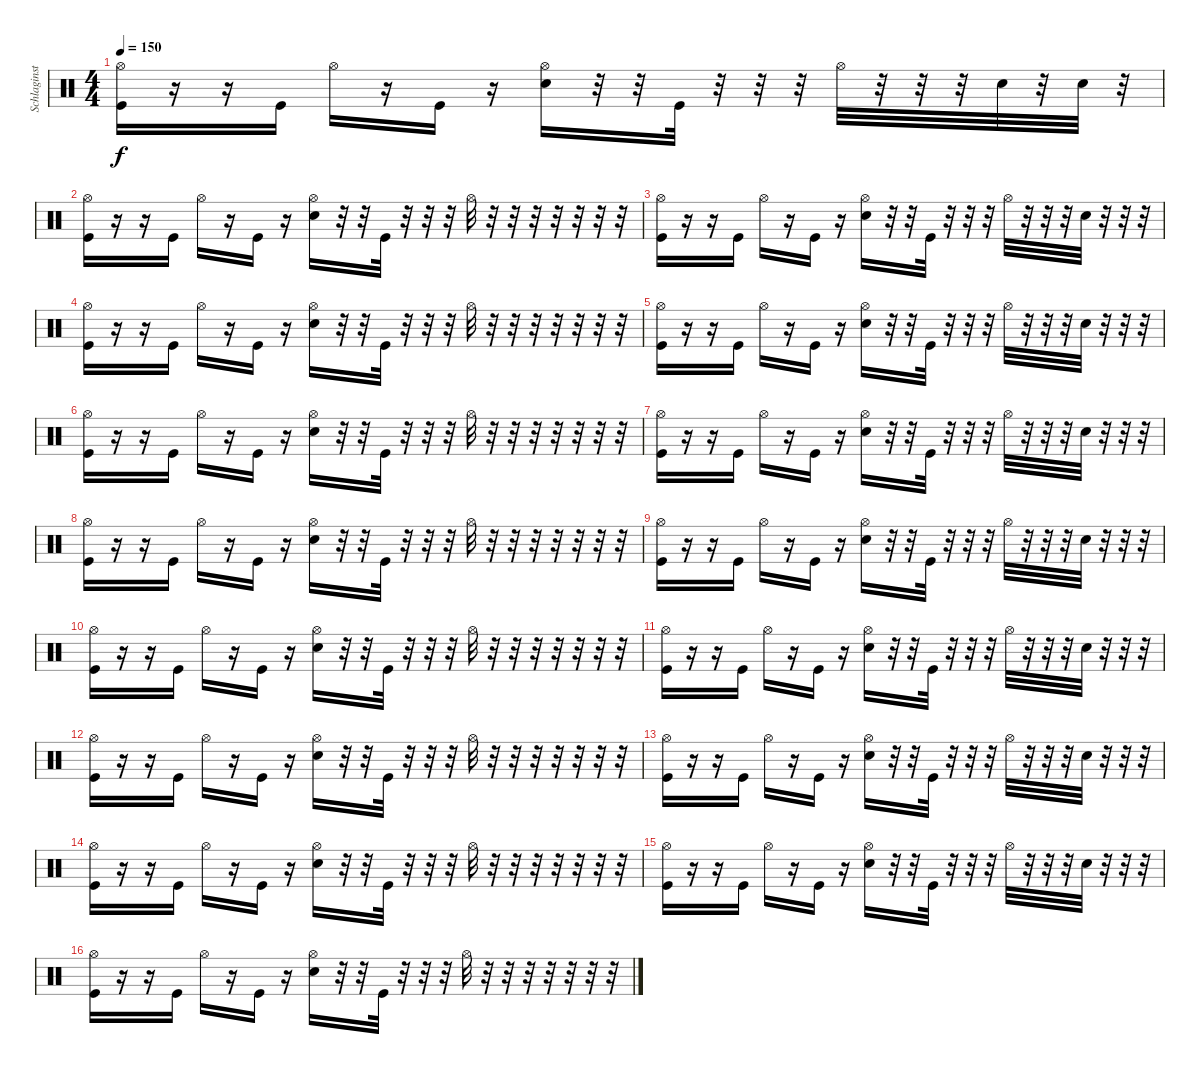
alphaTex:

\track ("Schlaginstrumente - Auswahl" "Schlaginst") {instrument percussion}
\staff {score}
\articulation defaults
\ts (4 4)
\tempo 150
\clef neutral
\ks c
("Kick (hit)" "Hi-Hat (open)").16{dy f} r.16 r.16 "Kick (hit)".16 "Hi-Hat (open)".16 r.16 "Kick (hit)".16 r.16 ("Electric Snare (hit)" "Hi-Hat (open)").16 r.32 r.32 "Kick (hit)".32 r.32 r.32 r.32 "Hi-Hat (open)".32 r.32 r.32 r.32 "Electric Snare (hit)".32 r.32 "Electric Snare (hit)".32 r.32 |
("Kick (hit)" "Hi-Hat (open)").16 r.16 r.16 "Kick (hit)".16 "Hi-Hat (open)".16 r.16 "Kick (hit)".16 r.16 ("Electric Snare (hit)" "Hi-Hat (open)").16 r.32 r.32 "Kick (hit)".32 r.32 r.32 r.32 "Hi-Hat (open)".32 r.32 r.32 r.32 r.32 r.32 r.32 r.32 |
("Kick (hit)" "Hi-Hat (open)").16 r.16 r.16 "Kick (hit)".16 "Hi-Hat (open)".16 r.16 "Kick (hit)".16 r.16 ("Electric Snare (hit)" "Hi-Hat (open)").16 r.32 r.32 "Kick (hit)".32 r.32 r.32 r.32 "Hi-Hat (open)".32 r.32 r.32 r.32 "Electric Snare (hit)".32 r.32 r.32 r.32 |
("Kick (hit)" "Hi-Hat (open)").16 r.16 r.16 "Kick (hit)".16 "Hi-Hat (open)".16 r.16 "Kick (hit)".16 r.16 ("Electric Snare (hit)" "Hi-Hat (open)").16 r.32 r.32 "Kick (hit)".32 r.32 r.32 r.32 "Hi-Hat (open)".32 r.32 r.32 r.32 r.32 r.32 r.32 r.32 |
("Kick (hit)" "Hi-Hat (open)").16 r.16 r.16 "Kick (hit)".16 "Hi-Hat (open)".16 r.16 "Kick (hit)".16 r.16 ("Electric Snare (hit)" "Hi-Hat (open)").16 r.32 r.32 "Kick (hit)".32 r.32 r.32 r.32 "Hi-Hat (open)".32 r.32 r.32 r.32 "Electric Snare (hit)".32 r.32 r.32 r.32 |
("Kick (hit)" "Hi-Hat (open)").16 r.16 r.16 "Kick (hit)".16 "Hi-Hat (open)".16 r.16 "Kick (hit)".16 r.16 ("Electric Snare (hit)" "Hi-Hat (open)").16 r.32 r.32 "Kick (hit)".32 r.32 r.32 r.32 "Hi-Hat (open)".32 r.32 r.32 r.32 r.32 r.32 r.32 r.32 |
("Kick (hit)" "Hi-Hat (open)").16 r.16 r.16 "Kick (hit)".16 "Hi-Hat (open)".16 r.16 "Kick (hit)".16 r.16 ("Electric Snare (hit)" "Hi-Hat (open)").16 r.32 r.32 "Kick (hit)".32 r.32 r.32 r.32 "Hi-Hat (open)".32 r.32 r.32 r.32 "Electric Snare (hit)".32 r.32 r.32 r.32 |
("Kick (hit)" "Hi-Hat (open)").16 r.16 r.16 "Kick (hit)".16 "Hi-Hat (open)".16 r.16 "Kick (hit)".16 r.16 ("Electric Snare (hit)" "Hi-Hat (open)").16 r.32 r.32 "Kick (hit)".32 r.32 r.32 r.32 "Hi-Hat (open)".32 r.32 r.32 r.32 r.32 r.32 r.32 r.32 |
("Kick (hit)" "Hi-Hat (open)").16 r.16 r.16 "Kick (hit)".16 "Hi-Hat (open)".16 r.16 "Kick (hit)".16 r.16 ("Electric Snare (hit)" "Hi-Hat (open)").16 r.32 r.32 "Kick (hit)".32 r.32 r.32 r.32 "Hi-Hat (open)".32 r.32 r.32 r.32 "Electric Snare (hit)".32 r.32 r.32 r.32 |
("Kick (hit)" "Hi-Hat (open)").16 r.16 r.16 "Kick (hit)".16 "Hi-Hat (open)".16 r.16 "Kick (hit)".16 r.16 ("Electric Snare (hit)" "Hi-Hat (open)").16 r.32 r.32 "Kick (hit)".32 r.32 r.32 r.32 "Hi-Hat (open)".32 r.32 r.32 r.32 r.32 r.32 r.32 r.32 |
("Kick (hit)" "Hi-Hat (open)").16 r.16 r.16 "Kick (hit)".16 "Hi-Hat (open)".16 r.16 "Kick (hit)".16 r.16 ("Electric Snare (hit)" "Hi-Hat (open)").16 r.32 r.32 "Kick (hit)".32 r.32 r.32 r.32 "Hi-Hat (open)".32 r.32 r.32 r.32 "Electric Snare (hit)".32 r.32 r.32 r.32 |
("Kick (hit)" "Hi-Hat (open)").16 r.16 r.16 "Kick (hit)".16 "Hi-Hat (open)".16 r.16 "Kick (hit)".16 r.16 ("Electric Snare (hit)" "Hi-Hat (open)").16 r.32 r.32 "Kick (hit)".32 r.32 r.32 r.32 "Hi-Hat (open)".32 r.32 r.32 r.32 r.32 r.32 r.32 r.32 |
("Kick (hit)" "Hi-Hat (open)").16 r.16 r.16 "Kick (hit)".16 "Hi-Hat (open)".16 r.16 "Kick (hit)".16 r.16 ("Electric Snare (hit)" "Hi-Hat (open)").16 r.32 r.32 "Kick (hit)".32 r.32 r.32 r.32 "Hi-Hat (open)".32 r.32 r.32 r.32 "Electric Snare (hit)".32 r.32 r.32 r.32 |
("Kick (hit)" "Hi-Hat (open)").16 r.16 r.16 "Kick (hit)".16 "Hi-Hat (open)".16 r.16 "Kick (hit)".16 r.16 ("Electric Snare (hit)" "Hi-Hat (open)").16 r.32 r.32 "Kick (hit)".32 r.32 r.32 r.32 "Hi-Hat (open)".32 r.32 r.32 r.32 r.32 r.32 r.32 r.32 |
("Kick (hit)" "Hi-Hat (open)").16 r.16 r.16 "Kick (hit)".16 "Hi-Hat (open)".16 r.16 "Kick (hit)".16 r.16 ("Electric Snare (hit)" "Hi-Hat (open)").16 r.32 r.32 "Kick (hit)".32 r.32 r.32 r.32 "Hi-Hat (open)".32 r.32 r.32 r.32 "Electric Snare (hit)".32 r.32 r.32 r.32 |
("Kick (hit)" "Hi-Hat (open)").16 r.16 r.16 "Kick (hit)".16 "Hi-Hat (open)".16 r.16 "Kick (hit)".16 r.16 ("Electric Snare (hit)" "Hi-Hat (open)").16 r.32 r.32 "Kick (hit)".32 r.32 r.32 r.32 "Hi-Hat (open)".32 r.32 r.32 r.32 r.32 r.32 r.32 r.32
